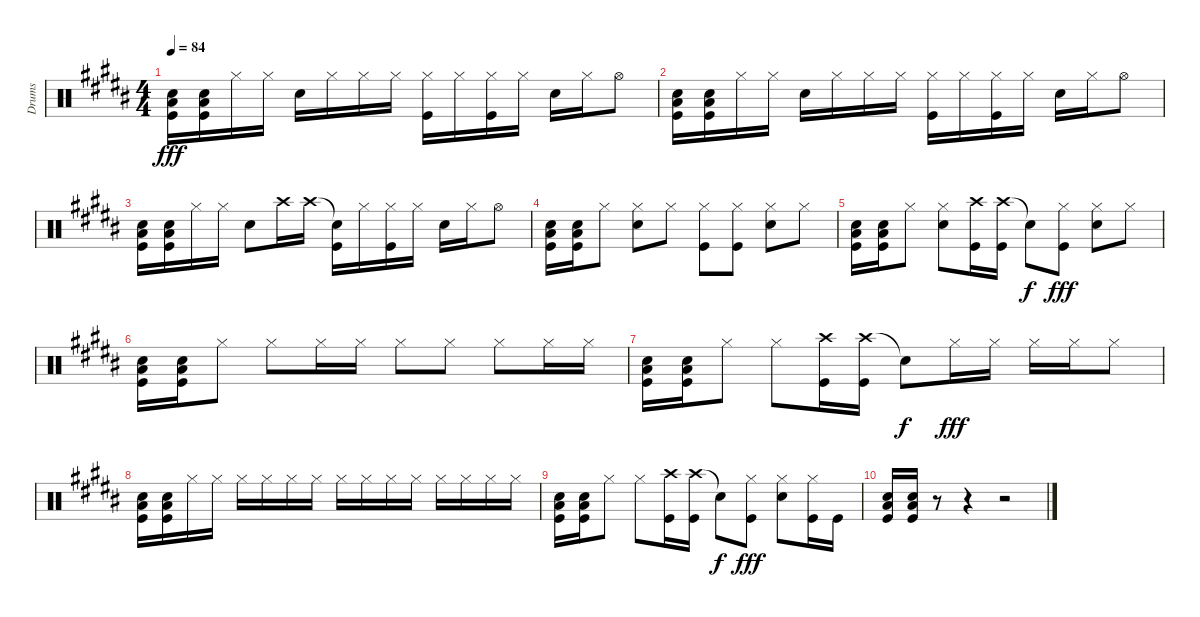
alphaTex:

\track ("Drums" "Drums") {instrument percussion}
\staff {score}
\articulation defaults
\ts (4 4)
\tempo 84
\clef neutral
\ks b
("Low Floor Tom (hit)" "Snare (hit) 2" "Kick (hit)").16{dy fff} ("Low Floor Tom (hit)" "Snare (hit) 2" "Kick (hit)").16 "Hi-Hat (closed)".16 "Hi-Hat (closed)".16 "Snare (hit) 2".16 "Hi-Hat (closed)".16 "Hi-Hat (closed)".16 "Hi-Hat (closed)".16 ("Hi-Hat (closed)" "Kick (hit)").16 "Hi-Hat (closed)".16 ("Hi-Hat (closed)" "Kick (hit)").16 "Hi-Hat (closed)".16 "Snare (hit) 2".16 "Hi-Hat (closed)".16 "Hi-Hat (open)".8 |
("Low Floor Tom (hit)" "Snare (hit) 2" "Kick (hit)").16 ("Low Floor Tom (hit)" "Snare (hit) 2" "Kick (hit)").16 "Hi-Hat (closed)".16 "Hi-Hat (closed)".16 "Snare (hit) 2".16 "Hi-Hat (closed)".16 "Hi-Hat (closed)".16 "Hi-Hat (closed)".16 ("Hi-Hat (closed)" "Kick (hit)").16 "Hi-Hat (closed)".16 ("Hi-Hat (closed)" "Kick (hit)").16 "Hi-Hat (closed)".16 "Snare (hit) 2".16 "Hi-Hat (closed)".16 "Hi-Hat (open)".8 |
("Low Floor Tom (hit)" "Snare (hit) 2" "Kick (hit)").16 ("Low Floor Tom (hit)" "Snare (hit) 2" "Kick (hit)").16 "Hi-Hat (closed)".16 "Hi-Hat (closed)".16 "Snare (hit) 2".8 "Crash high (hit)".16 "Crash high (hit)".16 ("Snare (hit)"{t} "Kick (hit)").16 "Hi-Hat (closed)".16 ("Hi-Hat (closed)" "Kick (hit)").16 "Hi-Hat (closed)".16 "Snare (hit) 2".16 "Hi-Hat (closed)".16 "Hi-Hat (open)".8 |
("Low Floor Tom (hit)" "Snare (hit) 2" "Kick (hit)").16 ("Low Floor Tom (hit)" "Snare (hit) 2" "Kick (hit)").16 "Hi-Hat (closed)".8 ("Hi-Hat (closed)" "Snare (hit) 2").8 "Hi-Hat (closed)".8 ("Hi-Hat (closed)" "Kick (hit)").8 ("Hi-Hat (closed)" "Kick (hit)").8 ("Hi-Hat (closed)" "Snare (hit) 2").8 "Hi-Hat (closed)".8 |
("Low Floor Tom (hit)" "Snare (hit) 2" "Kick (hit)").16 ("Low Floor Tom (hit)" "Snare (hit) 2" "Kick (hit)").16 "Hi-Hat (closed)".8 ("Hi-Hat (closed)" "Snare (hit) 2").8 ("Crash high (hit)" "Kick (hit)").16 ("Crash high (hit)" "Kick (hit)").16 "Snare (hit)"{t}.8{dy f} ("Hi-Hat (closed)" "Kick (hit)").8{dy fff} ("Hi-Hat (closed)" "Snare (hit) 2").8 "Hi-Hat (closed)".8 |
("Low Floor Tom (hit)" "Snare (hit) 2" "Kick (hit)").16 ("Low Floor Tom (hit)" "Snare (hit) 2" "Kick (hit)").16 "Hi-Hat (closed)".8 "Hi-Hat (closed)".8 "Hi-Hat (closed)".16 "Hi-Hat (closed)".16 "Hi-Hat (closed)".8 "Hi-Hat (closed)".8 "Hi-Hat (closed)".8 "Hi-Hat (closed)".16 "Hi-Hat (closed)".16 |
("Low Floor Tom (hit)" "Snare (hit) 2" "Kick (hit)").16 ("Low Floor Tom (hit)" "Snare (hit) 2" "Kick (hit)").16 "Hi-Hat (closed)".8 "Hi-Hat (closed)".8 ("Crash high (hit)" "Kick (hit)").16 ("Crash high (hit)" "Kick (hit)").16 "Snare (hit)"{t}.8{dy f} "Hi-Hat (closed)".16{dy fff} "Hi-Hat (closed)".16 "Hi-Hat (closed)".16 "Hi-Hat (closed)".16 "Hi-Hat (closed)".8 |
("Low Floor Tom (hit)" "Snare (hit) 2" "Kick (hit)").16 ("Low Floor Tom (hit)" "Snare (hit) 2" "Kick (hit)").16 "Hi-Hat (closed)".16 "Hi-Hat (closed)".16 "Hi-Hat (closed)".16 "Hi-Hat (closed)".16 "Hi-Hat (closed)".16 "Hi-Hat (closed)".16 "Hi-Hat (closed)".16 "Hi-Hat (closed)".16 "Hi-Hat (closed)".16 "Hi-Hat (closed)".16 "Hi-Hat (closed)".16 "Hi-Hat (closed)".16 "Hi-Hat (closed)".16 "Hi-Hat (closed)".16 |
("Low Floor Tom (hit)" "Snare (hit) 2" "Kick (hit)").16 ("Low Floor Tom (hit)" "Snare (hit) 2" "Kick (hit)").16 "Hi-Hat (closed)".8 "Hi-Hat (closed)".8 ("Crash high (hit)" "Kick (hit)").16 ("Crash high (hit)" "Kick (hit)").16 "Snare (hit)"{t}.8{dy f} ("Hi-Hat (closed)" "Kick (hit)").8{dy fff} ("Hi-Hat (closed)" "Snare (hit) 2").8 ("Hi-Hat (closed)" "Kick (hit)").16 "Kick (hit)".16 |
("Low Floor Tom (hit)" "Snare (hit) 2" "Kick (hit)").16 ("Low Floor Tom (hit)" "Snare (hit) 2" "Kick (hit)").16 r.8 r.4 r.2
